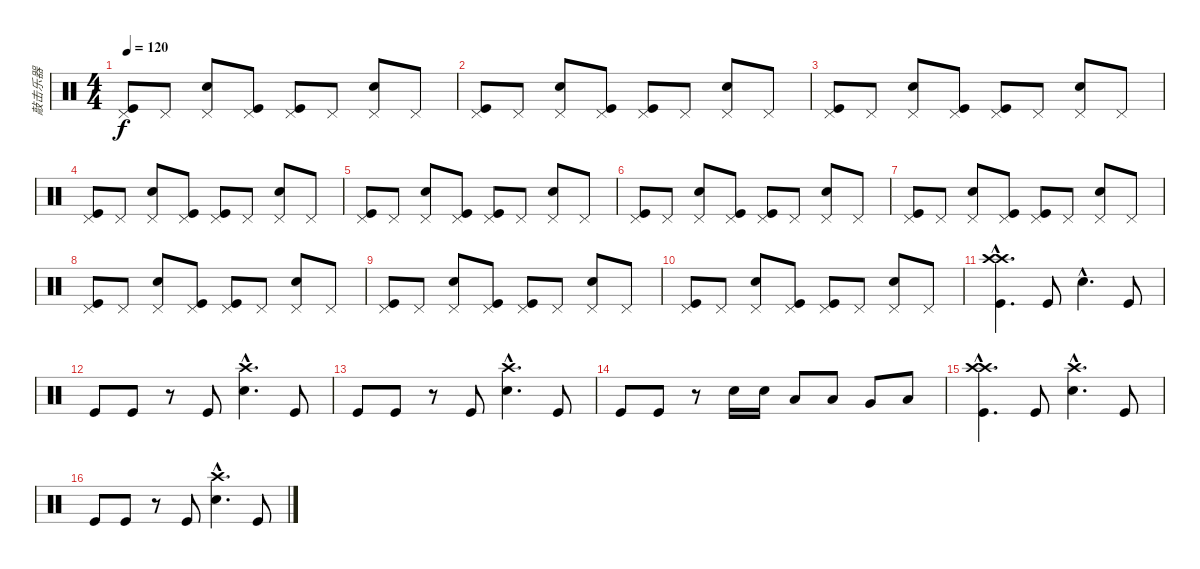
\track ("敲击乐器" "敲击乐器") {instrument percussion}
\staff {score}
\articulation defaults
\ts (4 4)
\tempo 120
\clef neutral
\ks c
("Pedal Hi-Hat (hit)" "Kick (hit)").8{dy f} "Pedal Hi-Hat (hit)".8 ("Pedal Hi-Hat (hit)" "Metronome (bell)").8 ("Pedal Hi-Hat (hit)" "Kick (hit)").8 ("Pedal Hi-Hat (hit)" "Kick (hit)").8 "Pedal Hi-Hat (hit)".8 ("Pedal Hi-Hat (hit)" "Metronome (bell)").8 "Pedal Hi-Hat (hit)".8 |
("Pedal Hi-Hat (hit)" "Kick (hit)").8 "Pedal Hi-Hat (hit)".8 ("Pedal Hi-Hat (hit)" "Metronome (bell)").8 ("Pedal Hi-Hat (hit)" "Kick (hit)").8 ("Pedal Hi-Hat (hit)" "Kick (hit)").8 "Pedal Hi-Hat (hit)".8 ("Pedal Hi-Hat (hit)" "Metronome (bell)").8 "Pedal Hi-Hat (hit)".8 |
("Pedal Hi-Hat (hit)" "Kick (hit)").8 "Pedal Hi-Hat (hit)".8 ("Pedal Hi-Hat (hit)" "Metronome (bell)").8 ("Pedal Hi-Hat (hit)" "Kick (hit)").8 ("Pedal Hi-Hat (hit)" "Kick (hit)").8 "Pedal Hi-Hat (hit)".8 ("Pedal Hi-Hat (hit)" "Metronome (bell)").8 "Pedal Hi-Hat (hit)".8 |
("Pedal Hi-Hat (hit)" "Kick (hit)").8 "Pedal Hi-Hat (hit)".8 ("Pedal Hi-Hat (hit)" "Metronome (bell)").8 ("Pedal Hi-Hat (hit)" "Kick (hit)").8 ("Pedal Hi-Hat (hit)" "Kick (hit)").8 "Pedal Hi-Hat (hit)".8 ("Pedal Hi-Hat (hit)" "Metronome (bell)").8 "Pedal Hi-Hat (hit)".8 |
("Pedal Hi-Hat (hit)" "Kick (hit)").8 "Pedal Hi-Hat (hit)".8 ("Pedal Hi-Hat (hit)" "Metronome (bell)").8 ("Pedal Hi-Hat (hit)" "Kick (hit)").8 ("Pedal Hi-Hat (hit)" "Kick (hit)").8 "Pedal Hi-Hat (hit)".8 ("Pedal Hi-Hat (hit)" "Metronome (bell)").8 "Pedal Hi-Hat (hit)".8 |
("Pedal Hi-Hat (hit)" "Kick (hit)").8 "Pedal Hi-Hat (hit)".8 ("Pedal Hi-Hat (hit)" "Metronome (bell)").8 ("Pedal Hi-Hat (hit)" "Kick (hit)").8 ("Pedal Hi-Hat (hit)" "Kick (hit)").8 "Pedal Hi-Hat (hit)".8 ("Pedal Hi-Hat (hit)" "Metronome (bell)").8 "Pedal Hi-Hat (hit)".8 |
("Pedal Hi-Hat (hit)" "Kick (hit)").8 "Pedal Hi-Hat (hit)".8 ("Pedal Hi-Hat (hit)" "Metronome (bell)").8 ("Pedal Hi-Hat (hit)" "Kick (hit)").8 ("Pedal Hi-Hat (hit)" "Kick (hit)").8 "Pedal Hi-Hat (hit)".8 ("Pedal Hi-Hat (hit)" "Metronome (bell)").8 "Pedal Hi-Hat (hit)".8 |
("Pedal Hi-Hat (hit)" "Kick (hit)").8 "Pedal Hi-Hat (hit)".8 ("Pedal Hi-Hat (hit)" "Metronome (bell)").8 ("Pedal Hi-Hat (hit)" "Kick (hit)").8 ("Pedal Hi-Hat (hit)" "Kick (hit)").8 "Pedal Hi-Hat (hit)".8 ("Pedal Hi-Hat (hit)" "Metronome (bell)").8 "Pedal Hi-Hat (hit)".8 |
("Pedal Hi-Hat (hit)" "Kick (hit)").8 "Pedal Hi-Hat (hit)".8 ("Pedal Hi-Hat (hit)" "Metronome (bell)").8 ("Pedal Hi-Hat (hit)" "Kick (hit)").8 ("Pedal Hi-Hat (hit)" "Kick (hit)").8 "Pedal Hi-Hat (hit)".8 ("Pedal Hi-Hat (hit)" "Metronome (bell)").8 "Pedal Hi-Hat (hit)".8 |
("Pedal Hi-Hat (hit)" "Kick (hit)").8 "Pedal Hi-Hat (hit)".8 ("Pedal Hi-Hat (hit)" "Metronome (bell)").8 ("Pedal Hi-Hat (hit)" "Kick (hit)").8 ("Pedal Hi-Hat (hit)" "Kick (hit)").8 "Pedal Hi-Hat (hit)".8 ("Pedal Hi-Hat (hit)" "Metronome (bell)").8 "Pedal Hi-Hat (hit)".8 |
("Crash high (hit)"{hac} "Crash high (hit)"{hac} "Kick (hit)"{hac}).4{d} "Kick (hit)".8 "Metronome (bell)"{hac}.4{d} "Kick (hit)".8 |
"Kick (hit)".8 "Kick (hit)".8 r.8 "Kick (hit)".8 ("Crash high (hit)"{hac} "Metronome (bell)"{hac}).4{d} "Kick (hit)".8 |
"Kick (hit)".8 "Kick (hit)".8 r.8 "Kick (hit)".8 ("Crash high (hit)"{hac} "Metronome (bell)"{hac}).4{d} "Kick (hit)".8 |
"Kick (hit)".8 "Kick (hit)".8 r.8 "Metronome (bell)".16 "Metronome (bell)".16 "Low Tom (hit)".8 "Low Tom (hit)".8 "Very Low Tom (hit)".8 "Low Floor Tom (hit)".8 |
("Crash high (hit)"{hac} "Crash high (hit)"{hac} "Kick (hit)"{hac}).4{d} "Kick (hit)".8 ("Crash high (hit)"{hac} "Metronome (bell)"{hac}).4{d} "Kick (hit)".8 |
"Kick (hit)".8 "Kick (hit)".8 r.8 "Kick (hit)".8 ("Crash high (hit)"{hac} "Metronome (bell)"{hac}).4{d} "Kick (hit)".8
